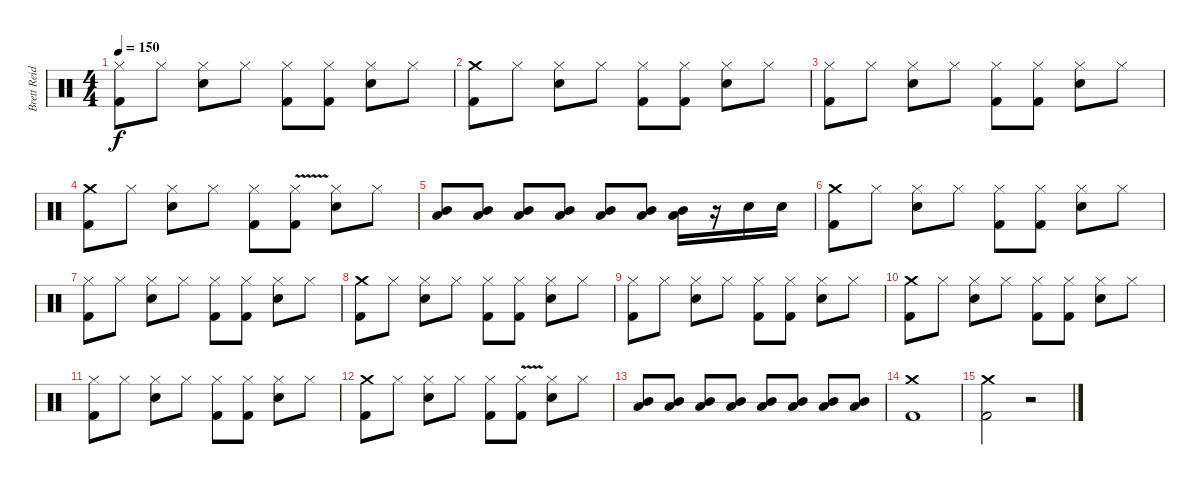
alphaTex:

\track ("Brett Reid" "Brett Reid") {instrument percussion}
\staff {score}
\articulation defaults
\ts (4 4)
\tempo 150
\clef neutral
\ks c
("Hi-Hat (closed)" "Kick (hit) 2").8{dy f} "Hi-Hat (closed)".8 ("Hi-Hat (closed)" "Snare (hit) 2").8 "Hi-Hat (closed)".8 ("Hi-Hat (closed)" "Kick (hit) 2").8 ("Hi-Hat (closed)" "Kick (hit) 2").8 ("Hi-Hat (closed)" "Snare (hit) 2").8 "Hi-Hat (closed)".8 |
("Crash medium (hit)" "Kick (hit) 2").8 "Hi-Hat (closed)".8 ("Hi-Hat (closed)" "Snare (hit) 2").8 "Hi-Hat (closed)".8 ("Hi-Hat (closed)" "Kick (hit) 2").8 ("Hi-Hat (closed)" "Kick (hit) 2").8 ("Hi-Hat (closed)" "Snare (hit) 2").8 "Hi-Hat (closed)".8 |
("Hi-Hat (closed)" "Kick (hit) 2").8 "Hi-Hat (closed)".8 ("Hi-Hat (closed)" "Snare (hit) 2").8 "Hi-Hat (closed)".8 ("Hi-Hat (closed)" "Kick (hit) 2").8 ("Hi-Hat (closed)" "Kick (hit) 2").8 ("Hi-Hat (closed)" "Snare (hit) 2").8 "Hi-Hat (closed)".8 |
("Crash medium (hit)" "Kick (hit) 2").8 "Hi-Hat (closed)".8 ("Hi-Hat (closed)" "Snare (hit) 2").8 "Hi-Hat (closed)".8 ("Hi-Hat (closed)" "Kick (hit) 2").8 ("Hi-Hat (closed)" "Kick (hit) 2"{v}).8 ("Hi-Hat (closed)" "Snare (hit) 2").8 "Hi-Hat (closed)".8 |
("Mid Tom (hit)" "Low Floor Tom (hit)").8 ("Mid Tom (hit)" "Low Floor Tom (hit)").8 ("Mid Tom (hit)" "Low Floor Tom (hit)").8 ("Mid Tom (hit)" "Low Floor Tom (hit)").8 ("Mid Tom (hit)" "Low Floor Tom (hit)").8 ("Mid Tom (hit)" "Low Floor Tom (hit)").8 ("Mid Tom (hit)" "Low Floor Tom (hit)").16 r.16 "Snare (hit) 2".16 "Snare (hit) 2".16 |
("Crash medium (hit)" "Kick (hit) 2").8 "Hi-Hat (closed)".8 ("Hi-Hat (closed)" "Snare (hit) 2").8 "Hi-Hat (closed)".8 ("Hi-Hat (closed)" "Kick (hit) 2").8 ("Hi-Hat (closed)" "Kick (hit) 2").8 ("Hi-Hat (closed)" "Snare (hit) 2").8 "Hi-Hat (closed)".8 |
("Hi-Hat (closed)" "Kick (hit) 2").8 "Hi-Hat (closed)".8 ("Hi-Hat (closed)" "Snare (hit) 2").8 "Hi-Hat (closed)".8 ("Hi-Hat (closed)" "Kick (hit) 2").8 ("Hi-Hat (closed)" "Kick (hit) 2").8 ("Hi-Hat (closed)" "Snare (hit) 2").8 "Hi-Hat (closed)".8 |
("Crash medium (hit)" "Kick (hit) 2").8 "Hi-Hat (closed)".8 ("Hi-Hat (closed)" "Snare (hit) 2").8 "Hi-Hat (closed)".8 ("Hi-Hat (closed)" "Kick (hit) 2").8 ("Hi-Hat (closed)" "Kick (hit) 2").8 ("Hi-Hat (closed)" "Snare (hit) 2").8 "Hi-Hat (closed)".8 |
("Hi-Hat (closed)" "Kick (hit) 2").8 "Hi-Hat (closed)".8 ("Hi-Hat (closed)" "Snare (hit) 2").8 "Hi-Hat (closed)".8 ("Hi-Hat (closed)" "Kick (hit) 2").8 ("Hi-Hat (closed)" "Kick (hit) 2").8 ("Hi-Hat (closed)" "Snare (hit) 2").8 "Hi-Hat (closed)".8 |
("Crash medium (hit)" "Kick (hit) 2").8 "Hi-Hat (closed)".8 ("Hi-Hat (closed)" "Snare (hit) 2").8 "Hi-Hat (closed)".8 ("Hi-Hat (closed)" "Kick (hit) 2").8 ("Hi-Hat (closed)" "Kick (hit) 2").8 ("Hi-Hat (closed)" "Snare (hit) 2").8 "Hi-Hat (closed)".8 |
("Hi-Hat (closed)" "Kick (hit) 2").8 "Hi-Hat (closed)".8 ("Hi-Hat (closed)" "Snare (hit) 2").8 "Hi-Hat (closed)".8 ("Hi-Hat (closed)" "Kick (hit) 2").8 ("Hi-Hat (closed)" "Kick (hit) 2").8 ("Hi-Hat (closed)" "Snare (hit) 2").8 "Hi-Hat (closed)".8 |
("Crash medium (hit)" "Kick (hit) 2").8 "Hi-Hat (closed)".8 ("Hi-Hat (closed)" "Snare (hit) 2").8 "Hi-Hat (closed)".8 ("Hi-Hat (closed)" "Kick (hit) 2").8 ("Hi-Hat (closed)" "Kick (hit) 2"{v}).8 ("Hi-Hat (closed)" "Snare (hit) 2").8 "Hi-Hat (closed)".8 |
("Mid Tom (hit)" "Low Floor Tom (hit)").8 ("Mid Tom (hit)" "Low Floor Tom (hit)").8 ("Mid Tom (hit)" "Low Floor Tom (hit)").8 ("Mid Tom (hit)" "Low Floor Tom (hit)").8 ("Mid Tom (hit)" "Low Floor Tom (hit)").8 ("Mid Tom (hit)" "Low Floor Tom (hit)").8 ("Mid Tom (hit)" "Low Floor Tom (hit)").8 ("Mid Tom (hit)" "Low Floor Tom (hit)").8 |
("Crash medium (hit)" "Kick (hit) 2").1 |
("Crash medium (hit)" "Kick (hit) 2").2 r.2
